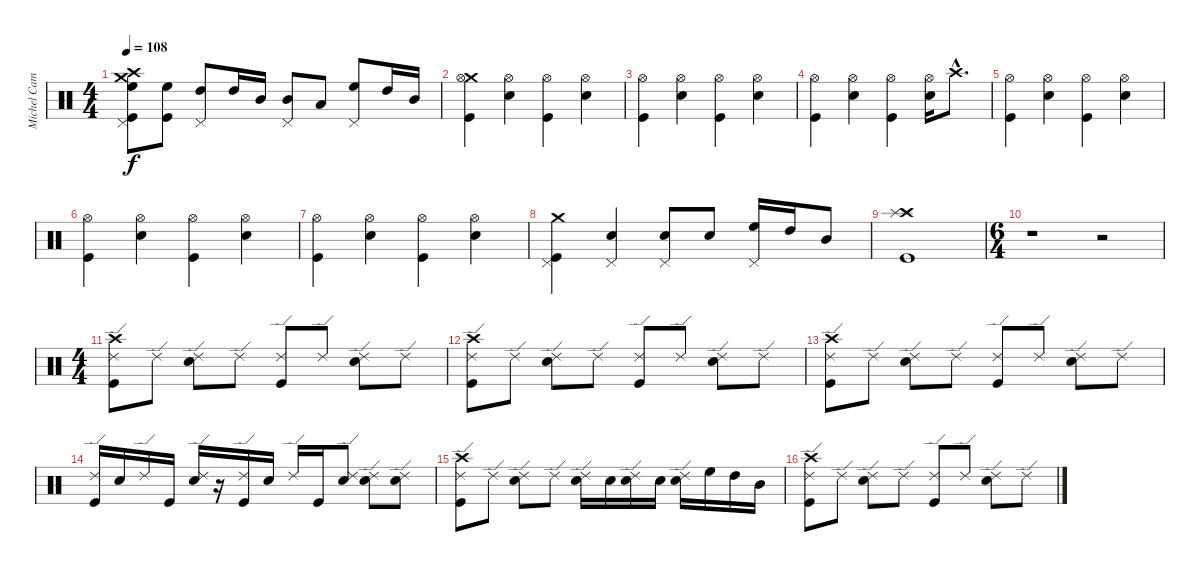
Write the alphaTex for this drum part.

\track ("Michel Camiade" "Michel Cam") {instrument percussion}
\staff {score}
\articulation defaults
\ts (4 4)
\tempo 108
\clef neutral
\ks c
("Crash medium (hit)" "Crash high (hit)" "High Floor Tom (hit)" "Pedal Hi-Hat (hit)" "Kick (hit)").8{dy f} ("High Floor Tom (hit)" "Kick (hit)").8 ("High Tom (hit)" "Pedal Hi-Hat (hit)").8 "High Tom (hit)".16 "Mid Tom (hit)".16 ("Mid Tom (hit)" "Pedal Hi-Hat (hit)").8 "Low Tom (hit)".8 ("High Floor Tom (hit)" "Pedal Hi-Hat (hit)").8 "High Tom (hit)".16 "Mid Tom (hit)".16 |
("Crash medium (hit)" "Hi-Hat (open)" "Kick (hit)").4 ("Hi-Hat (open)" "Snare (hit) 2").4 ("Hi-Hat (open)" "Kick (hit)").4 ("Hi-Hat (open)" "Snare (hit) 2").4 |
("Hi-Hat (open)" "Kick (hit)").4 ("Hi-Hat (open)" "Snare (hit) 2").4 ("Hi-Hat (open)" "Kick (hit)").4 ("Hi-Hat (open)" "Snare (hit) 2").4 |
("Hi-Hat (open)" "Kick (hit)").4 ("Hi-Hat (open)" "Snare (hit) 2").4 ("Hi-Hat (open)" "Kick (hit)").4 ("Hi-Hat (open)" "Snare (hit) 2").16 "Crash high (hit)"{hac}.8{d} |
("Hi-Hat (open)" "Kick (hit)").4 ("Hi-Hat (open)" "Snare (hit) 2").4 ("Hi-Hat (open)" "Kick (hit)").4 ("Hi-Hat (open)" "Snare (hit) 2").4 |
("Hi-Hat (open)" "Kick (hit)").4 ("Hi-Hat (open)" "Snare (hit) 2").4 ("Hi-Hat (open)" "Kick (hit)").4 ("Hi-Hat (open)" "Snare (hit) 2").4 |
("Hi-Hat (open)" "Kick (hit)").4 ("Hi-Hat (open)" "Snare (hit) 2").4 ("Hi-Hat (open)" "Kick (hit)").4 ("Hi-Hat (open)" "Snare (hit) 2").4 |
("Crash medium (hit)" "Pedal Hi-Hat (hit)" "Kick (hit)").4 ("Pedal Hi-Hat (hit)" "Snare (hit) 2").4 ("Pedal Hi-Hat (hit)" "Snare (hit) 2").8 "Snare (hit) 2".8 ("High Floor Tom (hit)" "Pedal Hi-Hat (hit)").16 "High Tom (hit)".16 "Mid Tom (hit)".8 |
("Crash high (hit)" "Splash (hit)" "Kick (hit)").1 |
\ts (6 4)
r.1 r.2 |
\ts (4 4)
("Crash high (hit)" "Ride (edge) 2" "Kick (hit)").8 "Ride (edge) 2".8 ("Ride (edge) 2" "Snare (hit) 2").8 "Ride (edge) 2".8 ("Ride (edge) 2" "Kick (hit)").8 "Ride (edge) 2".8 ("Ride (edge) 2" "Snare (hit) 2").8 "Ride (edge) 2".8 |
("Crash high (hit)" "Ride (edge) 2" "Kick (hit)").8 "Ride (edge) 2".8 ("Ride (edge) 2" "Snare (hit) 2").8 "Ride (edge) 2".8 ("Ride (edge) 2" "Kick (hit)").8 "Ride (edge) 2".8 ("Ride (edge) 2" "Snare (hit) 2").8 "Ride (edge) 2".8 |
("Crash high (hit)" "Ride (edge) 2" "Kick (hit)").8 "Ride (edge) 2".8 ("Ride (edge) 2" "Snare (hit) 2").8 "Ride (edge) 2".8 ("Ride (edge) 2" "Kick (hit)").8 "Ride (edge) 2".8 ("Ride (edge) 2" "Snare (hit) 2").8 "Ride (edge) 2".8 |
("Ride (edge) 2" "Kick (hit)").16 "Snare (hit) 2".16 "Ride (edge) 2".16 "Kick (hit)".16 ("Ride (edge) 2" "Snare (hit) 2").16 r.16 ("Ride (edge) 2" "Kick (hit)").16 "Snare (hit) 2".16 "Ride (edge) 2".16 "Kick (hit)".16 ("Ride (edge) 2" "Snare (hit) 2").8 ("Ride (edge) 2" "Snare (hit) 2").8 ("Ride (edge) 2" "Snare (hit) 2").8 |
("Crash high (hit)" "Ride (edge) 2" "Kick (hit)").8 "Ride (edge) 2".8 ("Ride (edge) 2" "Snare (hit) 2").8 "Ride (edge) 2".8 ("Ride (edge) 2" "Snare (hit) 2").16 "Snare (hit) 2".16 ("Ride (edge) 2" "Snare (hit) 2").16 "Snare (hit) 2".16 ("Ride (edge) 2" "Snare (hit) 2").16 "High Floor Tom (hit)".16 "High Tom (hit)".16 "Mid Tom (hit)".16 |
("Crash high (hit)" "Ride (edge) 2" "Kick (hit)").8 "Ride (edge) 2".8 ("Ride (edge) 2" "Snare (hit) 2").8 "Ride (edge) 2".8 ("Ride (edge) 2" "Kick (hit)").8 "Ride (edge) 2".8 ("Ride (edge) 2" "Snare (hit) 2").8 "Ride (edge) 2".8
